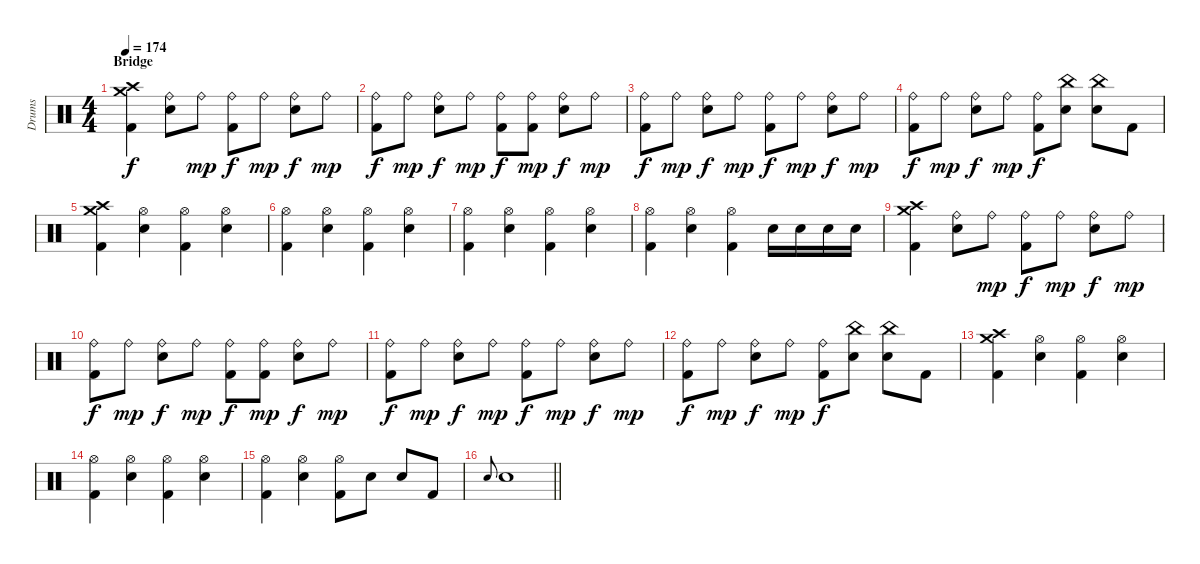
\track ("Drums" "Drums") {instrument percussion}
\staff {score}
\articulation defaults
\ts (4 4)
\section ("" "Bridge")
\tempo 174
\clef neutral
\ks c
("Crash medium (hit)" "Crash high (hit)" "Kick (hit) 2").4{dy f} ("Ride (bell)" "Electric Snare (hit)").8 "Ride (bell)".8{dy mp} ("Ride (bell)" "Kick (hit) 2").8{dy f} "Ride (bell)".8{dy mp} ("Ride (bell)" "Electric Snare (hit)").8{dy f} "Ride (bell)".8{dy mp} |
("Ride (bell)" "Kick (hit) 2").8{dy f} "Ride (bell)".8{dy mp} ("Ride (bell)" "Electric Snare (hit)").8{dy f} "Ride (bell)".8{dy mp} ("Ride (bell)" "Kick (hit) 2").8{dy f} ("Ride (bell)" "Kick (hit) 2").8{dy mp} ("Ride (bell)" "Electric Snare (hit)").8{dy f} "Ride (bell)".8{dy mp} |
("Ride (bell)" "Kick (hit) 2").8{dy f} "Ride (bell)".8{dy mp} ("Ride (bell)" "Electric Snare (hit)").8{dy f} "Ride (bell)".8{dy mp} ("Ride (bell)" "Kick (hit) 2").8{dy f} "Ride (bell)".8{dy mp} ("Ride (bell)" "Electric Snare (hit)").8{dy f} "Ride (bell)".8{dy mp} |
("Ride (bell)" "Kick (hit) 2").8{dy f} "Ride (bell)".8{dy mp} ("Ride (bell)" "Electric Snare (hit)").8{dy f} "Ride (bell)".8{dy mp} ("Ride (bell)" "Kick (hit) 2").8{dy f} ("China (hit)" "Electric Snare (hit)").8 ("China (hit)" "Electric Snare (hit)").8 "Kick (hit) 2".8 |
("Crash medium (hit)" "Crash high (hit)" "Kick (hit) 2").4 ("Hi-Hat (open)" "Electric Snare (hit)").4 ("Hi-Hat (open)" "Kick (hit) 2").4 ("Hi-Hat (open)" "Electric Snare (hit)").4 |
("Hi-Hat (open)" "Kick (hit) 2").4 ("Hi-Hat (open)" "Electric Snare (hit)").4 ("Hi-Hat (open)" "Kick (hit) 2").4 ("Hi-Hat (open)" "Electric Snare (hit)").4 |
("Hi-Hat (open)" "Kick (hit) 2").4 ("Hi-Hat (open)" "Electric Snare (hit)").4 ("Hi-Hat (open)" "Kick (hit) 2").4 ("Hi-Hat (open)" "Electric Snare (hit)").4 |
("Hi-Hat (open)" "Kick (hit) 2").4 ("Hi-Hat (open)" "Electric Snare (hit)").4 ("Hi-Hat (open)" "Kick (hit) 2").4 "Electric Snare (hit)".16 "Electric Snare (hit)".16 "Electric Snare (hit)".16 "Electric Snare (hit)".16 |
("Crash medium (hit)" "Crash high (hit)" "Kick (hit) 2").4 ("Ride (bell)" "Electric Snare (hit)").8 "Ride (bell)".8{dy mp} ("Ride (bell)" "Kick (hit) 2").8{dy f} "Ride (bell)".8{dy mp} ("Ride (bell)" "Electric Snare (hit)").8{dy f} "Ride (bell)".8{dy mp} |
("Ride (bell)" "Kick (hit) 2").8{dy f} "Ride (bell)".8{dy mp} ("Ride (bell)" "Electric Snare (hit)").8{dy f} "Ride (bell)".8{dy mp} ("Ride (bell)" "Kick (hit) 2").8{dy f} ("Ride (bell)" "Kick (hit) 2").8{dy mp} ("Ride (bell)" "Electric Snare (hit)").8{dy f} "Ride (bell)".8{dy mp} |
("Ride (bell)" "Kick (hit) 2").8{dy f} "Ride (bell)".8{dy mp} ("Ride (bell)" "Electric Snare (hit)").8{dy f} "Ride (bell)".8{dy mp} ("Ride (bell)" "Kick (hit) 2").8{dy f} "Ride (bell)".8{dy mp} ("Ride (bell)" "Electric Snare (hit)").8{dy f} "Ride (bell)".8{dy mp} |
("Ride (bell)" "Kick (hit) 2").8{dy f} "Ride (bell)".8{dy mp} ("Ride (bell)" "Electric Snare (hit)").8{dy f} "Ride (bell)".8{dy mp} ("Ride (bell)" "Kick (hit) 2").8{dy f} ("China (hit)" "Electric Snare (hit)").8 ("China (hit)" "Electric Snare (hit)").8 "Kick (hit) 2".8 |
("Crash medium (hit)" "Crash high (hit)" "Kick (hit) 2").4 ("Hi-Hat (open)" "Electric Snare (hit)").4 ("Hi-Hat (open)" "Kick (hit) 2").4 ("Hi-Hat (open)" "Electric Snare (hit)").4 |
("Hi-Hat (open)" "Kick (hit) 2").4 ("Hi-Hat (open)" "Electric Snare (hit)").4 ("Hi-Hat (open)" "Kick (hit) 2").4 ("Hi-Hat (open)" "Electric Snare (hit)").4 |
("Hi-Hat (open)" "Kick (hit) 2").4 ("Hi-Hat (open)" "Electric Snare (hit)").4 ("Hi-Hat (open)" "Kick (hit) 2").8 "Electric Snare (hit)".8 "Electric Snare (hit)".8 "Kick (hit) 2".8 |
\barLineRight lightlight "Electric Snare (hit)".8{gr onbeat} "Electric Snare (hit)".1
